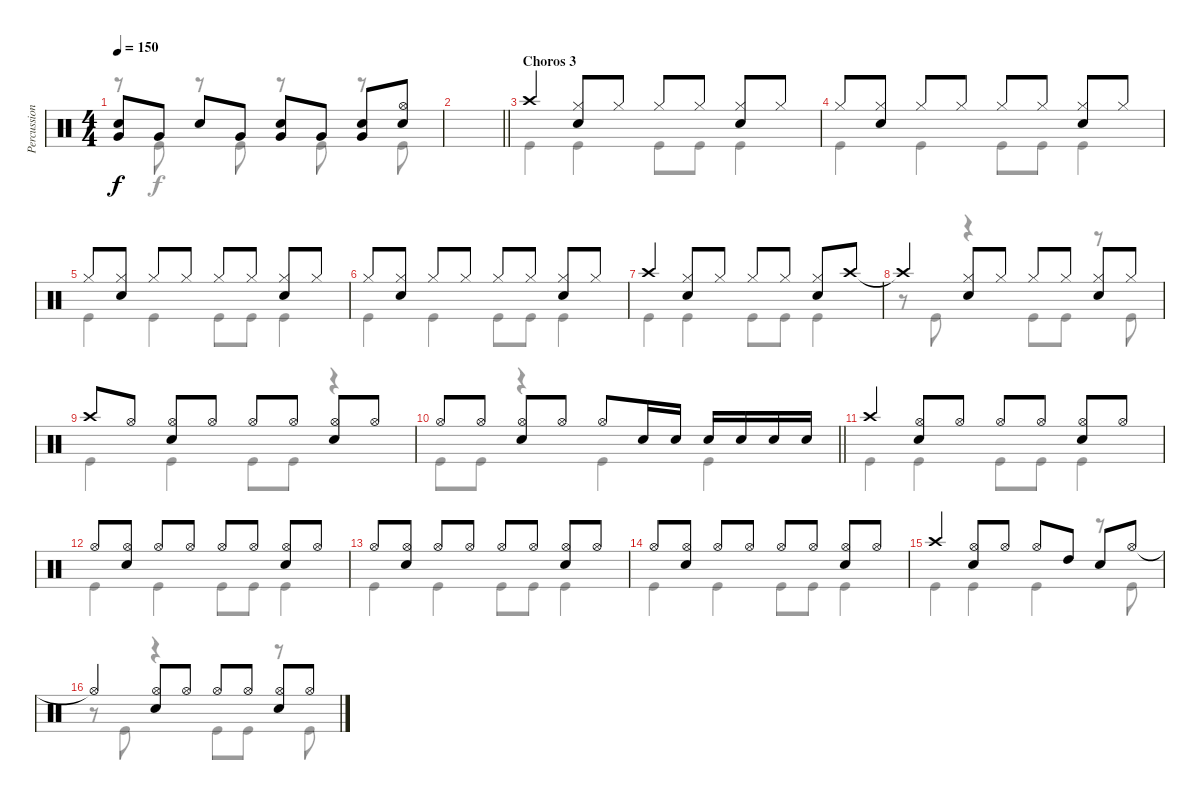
\track ("Percussion" "Percussion") {instrument percussion}
\staff {score}
\articulation defaults
\voice
\ts (4 4)
\tempo 150
\clef neutral
\ks c
("Very Low Tom (hit)" "Snare (hit) 2").8{dy f} "Very Low Tom (hit)".8 "Snare (hit) 2".8 "Very Low Tom (hit)".8 ("Very Low Tom (hit)" "Snare (hit) 2").8 "Very Low Tom (hit)".8 ("Snare (hit) 2" "Very Low Tom (hit)").8 ("Hi-Hat (open)" "Snare (hit) 2").8 |
\barLineRight lightlight
|
\section ("" "Choros 3")
"Crash high (hit)".4 ("Hi-Hat (closed)" "Snare (hit) 2").8 "Hi-Hat (closed)".8 "Hi-Hat (closed)".8 "Hi-Hat (closed)".8 ("Hi-Hat (closed)" "Snare (hit) 2").8 "Hi-Hat (closed)".8 |
"Hi-Hat (closed)".8 ("Hi-Hat (closed)" "Snare (hit) 2").8 "Hi-Hat (closed)".8 "Hi-Hat (closed)".8 "Hi-Hat (closed)".8 "Hi-Hat (closed)".8 ("Hi-Hat (closed)" "Snare (hit) 2").8 "Hi-Hat (closed)".8 |
"Hi-Hat (closed)".8 ("Hi-Hat (closed)" "Snare (hit) 2").8 "Hi-Hat (closed)".8 "Hi-Hat (closed)".8 "Hi-Hat (closed)".8 "Hi-Hat (closed)".8 ("Hi-Hat (closed)" "Snare (hit) 2").8 "Hi-Hat (closed)".8 |
"Hi-Hat (closed)".8 ("Hi-Hat (closed)" "Snare (hit) 2").8 "Hi-Hat (closed)".8 "Hi-Hat (closed)".8 "Hi-Hat (closed)".8 "Hi-Hat (closed)".8 ("Hi-Hat (closed)" "Snare (hit) 2").8 "Hi-Hat (closed)".8 |
"Crash high (hit)".4 ("Hi-Hat (closed)" "Snare (hit) 2").8 "Hi-Hat (closed)".8 "Hi-Hat (closed)".8 "Hi-Hat (closed)".8 ("Hi-Hat (closed)" "Snare (hit) 2").8 "Crash high (hit)".8 |
"Crash high (hit)"{t}.4 ("Hi-Hat (closed)" "Snare (hit) 2").8 "Hi-Hat (closed)".8 "Hi-Hat (closed)".8 "Hi-Hat (closed)".8 ("Hi-Hat (closed)" "Snare (hit) 2").8 "Hi-Hat (closed)".8 |
"Crash high (hit)".8 "Hi-Hat (open)".8 ("Hi-Hat (open)" "Snare (hit) 2").8 "Hi-Hat (open)".8 "Hi-Hat (open)".8 "Hi-Hat (open)".8 ("Hi-Hat (open)" "Snare (hit) 2").8 "Hi-Hat (open)".8 |
\barLineRight lightlight "Hi-Hat (open)".8 "Hi-Hat (open)".8
("Hi-Hat (open)" "Snare (hit) 2").8 "Hi-Hat (open)".8 "Hi-Hat (open)".8 "Snare (hit) 2".16 "Snare (hit) 2".16 "Snare (hit) 2".16 "Snare (hit) 2".16 "Snare (hit) 2".16 "Snare (hit) 2".16 |
"Crash high (hit)".4 ("Hi-Hat (open)" "Snare (hit) 2").8 "Hi-Hat (open)".8 "Hi-Hat (open)".8 "Hi-Hat (open)".8 ("Hi-Hat (open)" "Snare (hit) 2").8 "Hi-Hat (open)".8 |
"Hi-Hat (open)".8 ("Hi-Hat (open)" "Snare (hit) 2").8 "Hi-Hat (open)".8 "Hi-Hat (open)".8 "Hi-Hat (open)".8 "Hi-Hat (open)".8 ("Hi-Hat (open)" "Snare (hit) 2").8 "Hi-Hat (open)".8 |
"Hi-Hat (open)".8 ("Hi-Hat (open)" "Snare (hit) 2").8 "Hi-Hat (open)".8 "Hi-Hat (open)".8 "Hi-Hat (open)".8 "Hi-Hat (open)".8 ("Hi-Hat (open)" "Snare (hit) 2").8 "Hi-Hat (open)".8 |
"Hi-Hat (open)".8 ("Hi-Hat (open)" "Snare (hit) 2").8 "Hi-Hat (open)".8 "Hi-Hat (open)".8 "Hi-Hat (open)".8 "Hi-Hat (open)".8 ("Hi-Hat (open)" "Snare (hit) 2").8 "Hi-Hat (open)".8 |
"Crash high (hit)".4 ("Hi-Hat (open)" "Snare (hit) 2").8 "Hi-Hat (open)".8 "Hi-Hat (open)".8 "High Tom (hit)".8 "Snare (hit) 2".8 "Hi-Hat (open)".8 |
"Hi-Hat (open)"{t}.4 ("Hi-Hat (open)" "Snare (hit) 2").8 "Hi-Hat (open)".8 "Hi-Hat (open)".8 "Hi-Hat (open)".8 ("Hi-Hat (open)" "Snare (hit) 2").8 "Hi-Hat (open)".8
\voice
\clef neutral
\ottava regular
\simile none
\ks c
r.8{dy f} "Kick (hit)".8 r.8 "Kick (hit)".8 r.8 "Kick (hit)".8 r.8 "Kick (hit)".8 |
\barLineRight lightlight
|
"Kick (hit)".4 "Kick (hit)".4 "Kick (hit)".8 "Kick (hit)".8 "Kick (hit)".4 |
"Kick (hit)".4 "Kick (hit)".4 "Kick (hit)".8 "Kick (hit)".8 "Kick (hit)".4 |
"Kick (hit)".4 "Kick (hit)".4 "Kick (hit)".8 "Kick (hit)".8 "Kick (hit)".4 |
"Kick (hit)".4 "Kick (hit)".4 "Kick (hit)".8 "Kick (hit)".8 "Kick (hit)".4 |
"Kick (hit)".4 "Kick (hit)".4 "Kick (hit)".8 "Kick (hit)".8 "Kick (hit)".4 |
r.8 "Kick (hit)".8 r.4 "Kick (hit)".8 "Kick (hit)".8 r.8 "Kick (hit)".8 |
"Kick (hit)".4 "Kick (hit)".4 "Kick (hit)".8 "Kick (hit)".8 r.4 |
\barLineRight lightlight "Kick (hit)".8 "Kick (hit)".8
r.4 "Kick (hit)".4 "Kick (hit)".4 |
"Kick (hit)".4 "Kick (hit)".4 "Kick (hit)".8 "Kick (hit)".8 "Kick (hit)".4 |
"Kick (hit)".4 "Kick (hit)".4 "Kick (hit)".8 "Kick (hit)".8 "Kick (hit)".4 |
"Kick (hit)".4 "Kick (hit)".4 "Kick (hit)".8 "Kick (hit)".8 "Kick (hit)".4 |
"Kick (hit)".4 "Kick (hit)".4 "Kick (hit)".8 "Kick (hit)".8 "Kick (hit)".4 |
"Kick (hit)".4 "Kick (hit)".4 "Kick (hit)".4 r.8 "Kick (hit)".8 |
r.8 "Kick (hit)".8 r.4 "Kick (hit)".8 "Kick (hit)".8 r.8 "Kick (hit)".8
